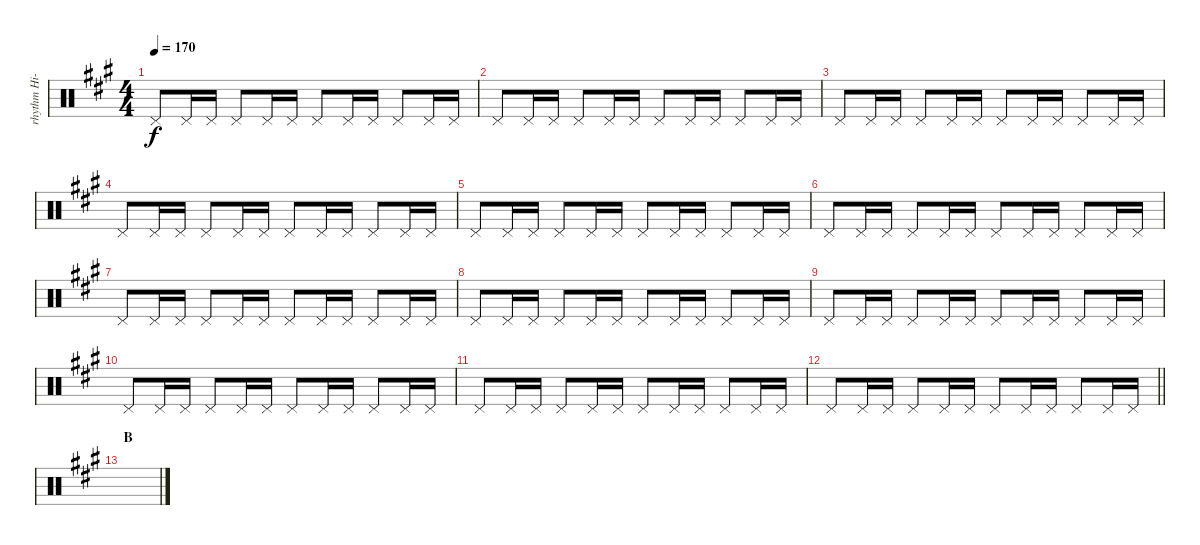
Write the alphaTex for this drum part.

\track ("rhythm Hi-hat" "rhythm Hi-") {instrument percussion}
\staff {score}
\articulation defaults
\ts (4 4)
\tempo 170
\clef neutral
\ks a "Pedal Hi-Hat (hit)".8{dy f} "Pedal Hi-Hat (hit)".16 "Pedal Hi-Hat (hit)".16 "Pedal Hi-Hat (hit)".8 "Pedal Hi-Hat (hit)".16 "Pedal Hi-Hat (hit)".16 "Pedal Hi-Hat (hit)".8 "Pedal Hi-Hat (hit)".16 "Pedal Hi-Hat (hit)".16 "Pedal Hi-Hat (hit)".8 "Pedal Hi-Hat (hit)".16 "Pedal Hi-Hat (hit)".16
|
"Pedal Hi-Hat (hit)".8 "Pedal Hi-Hat (hit)".16 "Pedal Hi-Hat (hit)".16 "Pedal Hi-Hat (hit)".8 "Pedal Hi-Hat (hit)".16 "Pedal Hi-Hat (hit)".16 "Pedal Hi-Hat (hit)".8 "Pedal Hi-Hat (hit)".16 "Pedal Hi-Hat (hit)".16 "Pedal Hi-Hat (hit)".8 "Pedal Hi-Hat (hit)".16 "Pedal Hi-Hat (hit)".16 |
"Pedal Hi-Hat (hit)".8 "Pedal Hi-Hat (hit)".16 "Pedal Hi-Hat (hit)".16 "Pedal Hi-Hat (hit)".8 "Pedal Hi-Hat (hit)".16 "Pedal Hi-Hat (hit)".16 "Pedal Hi-Hat (hit)".8 "Pedal Hi-Hat (hit)".16 "Pedal Hi-Hat (hit)".16 "Pedal Hi-Hat (hit)".8 "Pedal Hi-Hat (hit)".16 "Pedal Hi-Hat (hit)".16 |
"Pedal Hi-Hat (hit)".8 "Pedal Hi-Hat (hit)".16 "Pedal Hi-Hat (hit)".16 "Pedal Hi-Hat (hit)".8 "Pedal Hi-Hat (hit)".16 "Pedal Hi-Hat (hit)".16 "Pedal Hi-Hat (hit)".8 "Pedal Hi-Hat (hit)".16 "Pedal Hi-Hat (hit)".16 "Pedal Hi-Hat (hit)".8 "Pedal Hi-Hat (hit)".16 "Pedal Hi-Hat (hit)".16 |
"Pedal Hi-Hat (hit)".8 "Pedal Hi-Hat (hit)".16 "Pedal Hi-Hat (hit)".16 "Pedal Hi-Hat (hit)".8 "Pedal Hi-Hat (hit)".16 "Pedal Hi-Hat (hit)".16 "Pedal Hi-Hat (hit)".8 "Pedal Hi-Hat (hit)".16 "Pedal Hi-Hat (hit)".16 "Pedal Hi-Hat (hit)".8 "Pedal Hi-Hat (hit)".16 "Pedal Hi-Hat (hit)".16 |
"Pedal Hi-Hat (hit)".8 "Pedal Hi-Hat (hit)".16 "Pedal Hi-Hat (hit)".16 "Pedal Hi-Hat (hit)".8 "Pedal Hi-Hat (hit)".16 "Pedal Hi-Hat (hit)".16 "Pedal Hi-Hat (hit)".8 "Pedal Hi-Hat (hit)".16 "Pedal Hi-Hat (hit)".16 "Pedal Hi-Hat (hit)".8 "Pedal Hi-Hat (hit)".16 "Pedal Hi-Hat (hit)".16 |
"Pedal Hi-Hat (hit)".8 "Pedal Hi-Hat (hit)".16 "Pedal Hi-Hat (hit)".16 "Pedal Hi-Hat (hit)".8 "Pedal Hi-Hat (hit)".16 "Pedal Hi-Hat (hit)".16 "Pedal Hi-Hat (hit)".8 "Pedal Hi-Hat (hit)".16 "Pedal Hi-Hat (hit)".16 "Pedal Hi-Hat (hit)".8 "Pedal Hi-Hat (hit)".16 "Pedal Hi-Hat (hit)".16 |
"Pedal Hi-Hat (hit)".8 "Pedal Hi-Hat (hit)".16 "Pedal Hi-Hat (hit)".16 "Pedal Hi-Hat (hit)".8 "Pedal Hi-Hat (hit)".16 "Pedal Hi-Hat (hit)".16 "Pedal Hi-Hat (hit)".8 "Pedal Hi-Hat (hit)".16 "Pedal Hi-Hat (hit)".16 "Pedal Hi-Hat (hit)".8 "Pedal Hi-Hat (hit)".16 "Pedal Hi-Hat (hit)".16 |
"Pedal Hi-Hat (hit)".8 "Pedal Hi-Hat (hit)".16 "Pedal Hi-Hat (hit)".16 "Pedal Hi-Hat (hit)".8 "Pedal Hi-Hat (hit)".16 "Pedal Hi-Hat (hit)".16 "Pedal Hi-Hat (hit)".8 "Pedal Hi-Hat (hit)".16 "Pedal Hi-Hat (hit)".16 "Pedal Hi-Hat (hit)".8 "Pedal Hi-Hat (hit)".16 "Pedal Hi-Hat (hit)".16 |
"Pedal Hi-Hat (hit)".8 "Pedal Hi-Hat (hit)".16 "Pedal Hi-Hat (hit)".16 "Pedal Hi-Hat (hit)".8 "Pedal Hi-Hat (hit)".16 "Pedal Hi-Hat (hit)".16 "Pedal Hi-Hat (hit)".8 "Pedal Hi-Hat (hit)".16 "Pedal Hi-Hat (hit)".16 "Pedal Hi-Hat (hit)".8 "Pedal Hi-Hat (hit)".16 "Pedal Hi-Hat (hit)".16 |
"Pedal Hi-Hat (hit)".8 "Pedal Hi-Hat (hit)".16 "Pedal Hi-Hat (hit)".16 "Pedal Hi-Hat (hit)".8 "Pedal Hi-Hat (hit)".16 "Pedal Hi-Hat (hit)".16 "Pedal Hi-Hat (hit)".8 "Pedal Hi-Hat (hit)".16 "Pedal Hi-Hat (hit)".16 "Pedal Hi-Hat (hit)".8 "Pedal Hi-Hat (hit)".16 "Pedal Hi-Hat (hit)".16 |
\barLineRight lightlight "Pedal Hi-Hat (hit)".8 "Pedal Hi-Hat (hit)".16 "Pedal Hi-Hat (hit)".16 "Pedal Hi-Hat (hit)".8 "Pedal Hi-Hat (hit)".16 "Pedal Hi-Hat (hit)".16 "Pedal Hi-Hat (hit)".8 "Pedal Hi-Hat (hit)".16 "Pedal Hi-Hat (hit)".16 "Pedal Hi-Hat (hit)".8 "Pedal Hi-Hat (hit)".16 "Pedal Hi-Hat (hit)".16
|
\section ("" "B")
